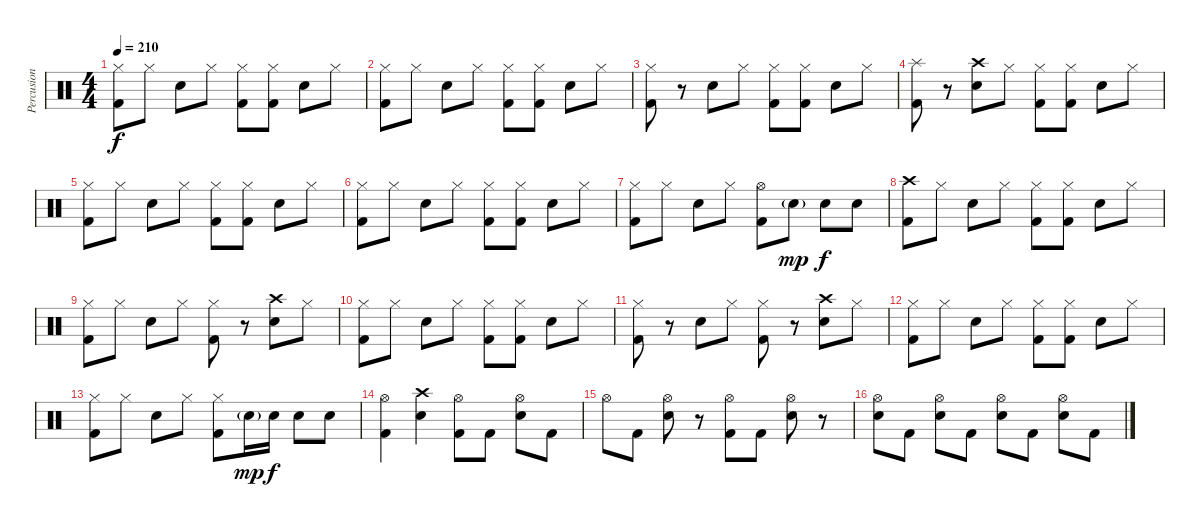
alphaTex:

\track ("Percusion" "Percusion") {instrument percussion}
\staff {score}
\articulation defaults
\ts (4 4)
\tempo 210
\clef neutral
\ks c
("Hi-Hat (closed)" "Kick (hit) 2").8{dy f} "Hi-Hat (closed)".8 "Snare (hit) 2".8 "Hi-Hat (closed)".8 ("Hi-Hat (closed)" "Kick (hit) 2").8 ("Hi-Hat (closed)" "Kick (hit) 2").8 "Snare (hit) 2".8 "Hi-Hat (closed)".8 |
("Hi-Hat (closed)" "Kick (hit) 2").8 "Hi-Hat (closed)".8 "Snare (hit) 2".8 "Hi-Hat (closed)".8 ("Hi-Hat (closed)" "Kick (hit) 2").8 ("Hi-Hat (closed)" "Kick (hit) 2").8 "Snare (hit) 2".8 "Hi-Hat (closed)".8 |
("Hi-Hat (closed)" "Kick (hit) 2").8 r.8 "Snare (hit) 2".8 "Hi-Hat (closed)".8 ("Hi-Hat (closed)" "Kick (hit) 2").8 ("Hi-Hat (closed)" "Kick (hit) 2").8 "Snare (hit) 2".8 "Hi-Hat (closed)".8 |
("Splash (hit)" "Kick (hit) 2").8 r.8 ("Crash high (hit)" "Snare (hit) 2").8 "Hi-Hat (closed)".8 ("Hi-Hat (closed)" "Kick (hit) 2").8 ("Hi-Hat (closed)" "Kick (hit) 2").8 "Snare (hit) 2".8 "Hi-Hat (closed)".8 |
("Hi-Hat (closed)" "Kick (hit) 2").8 "Hi-Hat (closed)".8 "Snare (hit) 2".8 "Hi-Hat (closed)".8 ("Hi-Hat (closed)" "Kick (hit) 2").8 ("Hi-Hat (closed)" "Kick (hit) 2").8 "Snare (hit) 2".8 "Hi-Hat (closed)".8 |
("Hi-Hat (closed)" "Kick (hit) 2").8 "Hi-Hat (closed)".8 "Snare (hit) 2".8 "Hi-Hat (closed)".8 ("Hi-Hat (closed)" "Kick (hit) 2").8 ("Hi-Hat (closed)" "Kick (hit) 2").8 "Snare (hit) 2".8 "Hi-Hat (closed)".8 |
("Hi-Hat (closed)" "Kick (hit) 2").8 "Hi-Hat (closed)".8 "Snare (hit) 2".8 "Hi-Hat (closed)".8 ("Hi-Hat (open)" "Kick (hit) 2").8 "Snare (hit) 2"{g}.8{dy mp} "Snare (hit) 2".8{dy f} "Snare (hit) 2".8 |
("Crash high (hit)" "Kick (hit) 2").8 "Hi-Hat (closed)".8 "Snare (hit) 2".8 "Hi-Hat (closed)".8 ("Hi-Hat (closed)" "Kick (hit) 2").8 ("Hi-Hat (closed)" "Kick (hit) 2").8 "Snare (hit) 2".8 "Hi-Hat (closed)".8 |
("Hi-Hat (closed)" "Kick (hit) 2").8 "Hi-Hat (closed)".8 "Snare (hit) 2".8 "Hi-Hat (closed)".8 ("Hi-Hat (closed)" "Kick (hit) 2").8 r.8 ("Crash high (hit)" "Snare (hit) 2").8 "Hi-Hat (closed)".8 |
("Hi-Hat (closed)" "Kick (hit) 2").8 "Hi-Hat (closed)".8 "Snare (hit) 2".8 "Hi-Hat (closed)".8 ("Hi-Hat (closed)" "Kick (hit) 2").8 ("Hi-Hat (closed)" "Kick (hit) 2").8 "Snare (hit) 2".8 "Hi-Hat (closed)".8 |
("Hi-Hat (closed)" "Kick (hit) 2").8 r.8 "Snare (hit) 2".8 "Hi-Hat (closed)".8 ("Hi-Hat (closed)" "Kick (hit) 2").8 r.8 ("Crash high (hit)" "Snare (hit) 2").8 "Hi-Hat (closed)".8 |
("Hi-Hat (closed)" "Kick (hit) 2").8 "Hi-Hat (closed)".8 "Snare (hit) 2".8 "Hi-Hat (closed)".8 ("Hi-Hat (closed)" "Kick (hit) 2").8 ("Hi-Hat (closed)" "Kick (hit) 2").8 "Snare (hit) 2".8 "Hi-Hat (closed)".8 |
("Hi-Hat (closed)" "Kick (hit) 2").8 "Hi-Hat (closed)".8 "Snare (hit) 2".8 "Hi-Hat (closed)".8 ("Hi-Hat (closed)" "Kick (hit) 2").8 "Snare (hit) 2"{g}.16{dy mp} "Snare (hit) 2".16{dy f} "Snare (hit) 2".8 "Snare (hit) 2".8 |
("Hi-Hat (open)" "Kick (hit) 2").4 ("Crash high (hit)" "Snare (hit) 2").4 ("Hi-Hat (open)" "Kick (hit) 2").8 "Kick (hit) 2".8 ("Hi-Hat (open)" "Snare (hit) 2").8 "Kick (hit) 2".8 |
"Hi-Hat (open)".8 "Kick (hit) 2".8 ("Hi-Hat (open)" "Snare (hit) 2").8 r.8 ("Hi-Hat (open)" "Kick (hit) 2").8 "Kick (hit) 2".8 ("Hi-Hat (open)" "Snare (hit) 2").8 r.8 |
("Hi-Hat (open)" "Snare (hit) 2").8 "Kick (hit) 2".8 ("Hi-Hat (open)" "Snare (hit) 2").8 "Kick (hit) 2".8 ("Hi-Hat (open)" "Snare (hit) 2").8 "Kick (hit) 2".8 ("Hi-Hat (open)" "Snare (hit) 2").8 "Kick (hit) 2".8
